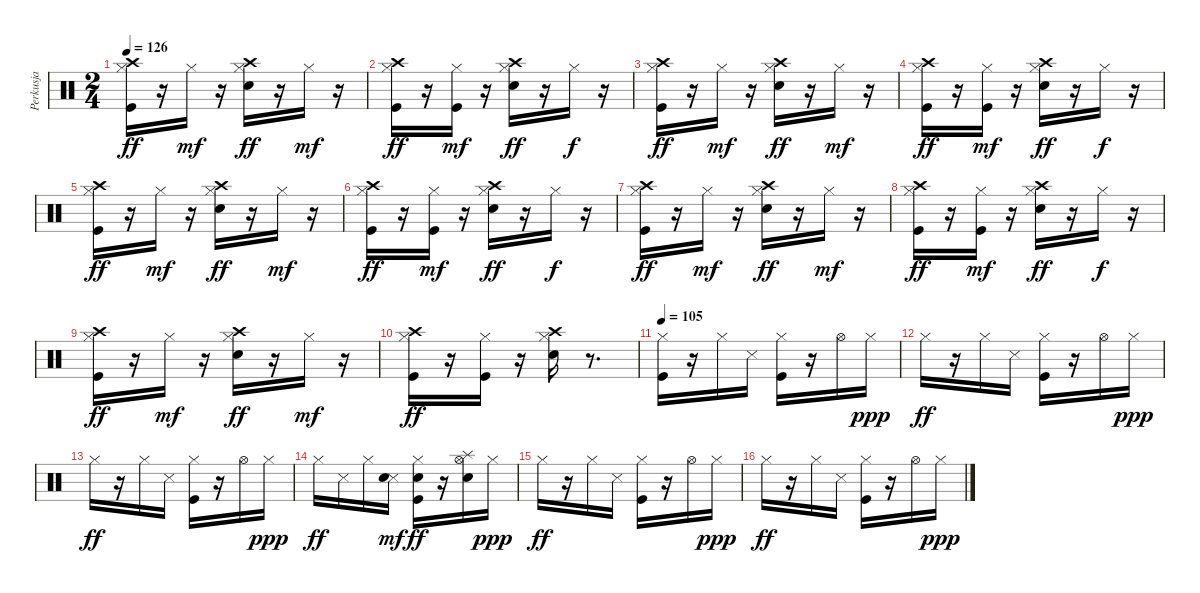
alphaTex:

\track ("Perkusja" "Perkusja") {instrument percussion}
\staff {score}
\articulation defaults
\ts (2 4)
\tempo 126
\clef neutral
\ks c
("Kick (hit)" "Hi-Hat (closed)" "Crash high (hit)").16{dy ff} r.16 "Hi-Hat (closed)".16{dy mf} r.16 ("Snare (hit) 2" "Hi-Hat (closed)" "Crash high (hit)").16{dy ff} r.16 "Hi-Hat (closed)".16{dy mf} r.16 |
("Kick (hit)" "Hi-Hat (closed)" "Crash high (hit)").16{dy ff} r.16 ("Kick (hit)" "Hi-Hat (closed)").16{dy mf} r.16 ("Snare (hit) 2" "Hi-Hat (closed)" "Crash high (hit)").16{dy ff} r.16 "Hi-Hat (closed)".16{dy f} r.16 |
("Kick (hit)" "Hi-Hat (closed)" "Crash high (hit)").16{dy ff} r.16 "Hi-Hat (closed)".16{dy mf} r.16 ("Snare (hit) 2" "Hi-Hat (closed)" "Crash high (hit)").16{dy ff} r.16 "Hi-Hat (closed)".16{dy mf} r.16 |
("Kick (hit)" "Hi-Hat (closed)" "Crash high (hit)").16{dy ff} r.16 ("Kick (hit)" "Hi-Hat (closed)").16{dy mf} r.16 ("Snare (hit) 2" "Hi-Hat (closed)" "Crash high (hit)").16{dy ff} r.16 "Hi-Hat (closed)".16{dy f} r.16 |
("Kick (hit)" "Hi-Hat (closed)" "Crash high (hit)").16{dy ff} r.16 "Hi-Hat (closed)".16{dy mf} r.16 ("Snare (hit) 2" "Hi-Hat (closed)" "Crash high (hit)").16{dy ff} r.16 "Hi-Hat (closed)".16{dy mf} r.16 |
("Kick (hit)" "Hi-Hat (closed)" "Crash high (hit)").16{dy ff} r.16 ("Kick (hit)" "Hi-Hat (closed)").16{dy mf} r.16 ("Snare (hit) 2" "Hi-Hat (closed)" "Crash high (hit)").16{dy ff} r.16 "Hi-Hat (closed)".16{dy f} r.16 |
("Kick (hit)" "Hi-Hat (closed)" "Crash high (hit)").16{dy ff} r.16 "Hi-Hat (closed)".16{dy mf} r.16 ("Snare (hit) 2" "Hi-Hat (closed)" "Crash high (hit)").16{dy ff} r.16 "Hi-Hat (closed)".16{dy mf} r.16 |
("Kick (hit)" "Hi-Hat (closed)" "Crash high (hit)").16{dy ff} r.16 ("Kick (hit)" "Hi-Hat (closed)").16{dy mf} r.16 ("Snare (hit) 2" "Hi-Hat (closed)" "Crash high (hit)").16{dy ff} r.16 "Hi-Hat (closed)".16{dy f} r.16 |
("Kick (hit)" "Hi-Hat (closed)" "Crash high (hit)").16{dy ff} r.16 "Hi-Hat (closed)".16{dy mf} r.16 ("Snare (hit) 2" "Hi-Hat (closed)" "Crash high (hit)").16{dy ff} r.16 "Hi-Hat (closed)".16{dy mf} r.16 |
("Kick (hit)" "Hi-Hat (closed)" "Crash high (hit)").16{dy ff} r.16 ("Kick (hit)" "Hi-Hat (closed)").16 r.16 ("Snare (hit) 2" "Hi-Hat (closed)" "Crash high (hit)").16 r.8{d} |
\tempo 105
("Kick (hit)" "Hi-Hat (closed)").16 r.16 "Hi-Hat (closed)".16 "Snare (side stick) 3".16 ("Kick (hit)" "Hi-Hat (closed)").16 r.16 "Hi-Hat (open)".16 "Hi-Hat (closed)".16{dy ppp} |
"Hi-Hat (closed)".16{dy ff} r.16 "Hi-Hat (closed)".16 "Snare (side stick) 3".16 ("Kick (hit)" "Hi-Hat (closed)").16 r.16 "Hi-Hat (open)".16 "Hi-Hat (closed)".16{dy ppp} |
"Hi-Hat (closed)".16{dy ff} r.16 "Hi-Hat (closed)".16 "Snare (side stick) 3".16 ("Kick (hit)" "Hi-Hat (closed)").16 r.16 "Hi-Hat (open)".16 "Hi-Hat (closed)".16{dy ppp} |
"Hi-Hat (closed)".16{dy ff} "Snare (side stick) 3".16 "Hi-Hat (closed)".16 ("Snare (side stick) 3" "Electric Snare (hit)").16{dy mf} ("Kick (hit)" "Hi-Hat (closed)" "Snare (hit) 2").16{dy ff} r.16 ("Hi-Hat (open)" "Splash (hit)" "Electric Snare (hit)").16 "Hi-Hat (closed)".16{dy ppp} |
"Hi-Hat (closed)".16{dy ff} r.16 "Hi-Hat (closed)".16 "Snare (side stick) 3".16 ("Kick (hit)" "Hi-Hat (closed)").16 r.16 "Hi-Hat (open)".16 "Hi-Hat (closed)".16{dy ppp} |
"Hi-Hat (closed)".16{dy ff} r.16 "Hi-Hat (closed)".16 "Snare (side stick) 3".16 ("Kick (hit)" "Hi-Hat (closed)").16 r.16 "Hi-Hat (open)".16 "Hi-Hat (closed)".16{dy ppp}
